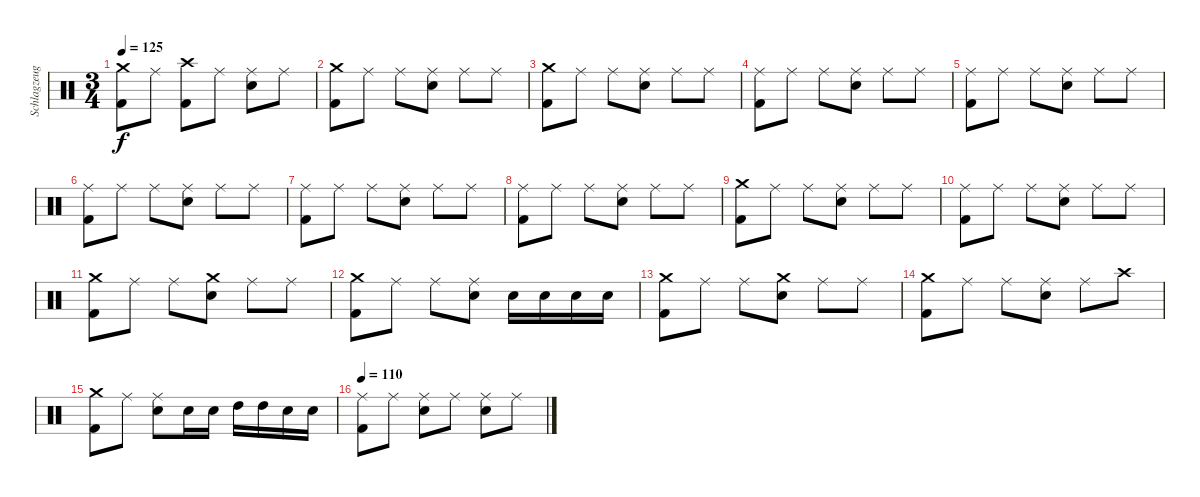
\track ("Schlagzeug" "Schlagzeug") {instrument percussion}
\staff {score}
\articulation defaults
\ts (3 4)
\tempo 125
\clef neutral
\ks c
("Crash medium (hit)" "Kick (hit) 2").8{dy f} "Ride (middle)".8 ("Crash high (hit)" "Kick (hit) 2").8 "Ride (middle)".8 ("Ride (middle)" "Snare (hit) 2").8 "Ride (middle)".8 |
("Crash medium (hit)" "Kick (hit) 2").8 "Ride (middle)".8 "Ride (middle)".8 ("Ride (middle)" "Snare (hit) 2").8 "Ride (middle)".8 "Ride (middle)".8 |
("Crash medium (hit)" "Kick (hit) 2").8 "Ride (middle)".8 "Ride (middle)".8 ("Ride (middle)" "Snare (hit) 2").8 "Ride (middle)".8 "Ride (middle)".8 |
("Ride (middle)" "Kick (hit) 2").8 "Ride (middle)".8 "Ride (middle)".8 ("Ride (middle)" "Snare (hit) 2").8 "Ride (middle)".8 "Ride (middle)".8 |
("Ride (middle)" "Kick (hit) 2").8 "Ride (middle)".8 "Ride (middle)".8 ("Ride (middle)" "Snare (hit) 2").8 "Ride (middle)".8 "Ride (middle)".8 |
("Ride (middle)" "Kick (hit) 2").8 "Ride (middle)".8 "Ride (middle)".8 ("Ride (middle)" "Snare (hit) 2").8 "Ride (middle)".8 "Ride (middle)".8 |
("Ride (middle)" "Kick (hit) 2").8 "Ride (middle)".8 "Ride (middle)".8 ("Ride (middle)" "Snare (hit) 2").8 "Ride (middle)".8 "Ride (middle)".8 |
("Ride (middle)" "Kick (hit) 2").8 "Ride (middle)".8 "Ride (middle)".8 ("Ride (middle)" "Snare (hit) 2").8 "Ride (middle)".8 "Ride (middle)".8 |
("Crash medium (hit)" "Kick (hit) 2").8 "Ride (middle)".8 "Ride (middle)".8 ("Ride (middle)" "Snare (hit) 2").8 "Ride (middle)".8 "Ride (middle)".8 |
("Ride (middle)" "Kick (hit) 2").8 "Ride (middle)".8 "Ride (middle)".8 ("Ride (middle)" "Snare (hit) 2").8 "Ride (middle)".8 "Ride (middle)".8 |
("Crash medium (hit)" "Kick (hit) 2").8 "Ride (middle)".8 "Ride (middle)".8 ("Crash medium (hit)" "Snare (hit) 2").8 "Ride (middle)".8 "Ride (middle)".8 |
("Crash medium (hit)" "Kick (hit) 2").8 "Ride (middle)".8 "Ride (middle)".8 ("Ride (middle)" "Snare (hit) 2").8 "Snare (hit) 2".16 "Snare (hit) 2".16 "Snare (hit) 2".16 "Snare (hit) 2".16 |
("Crash medium (hit)" "Kick (hit) 2").8 "Ride (middle)".8 "Ride (middle)".8 ("Crash medium (hit)" "Snare (hit) 2").8 "Ride (middle)".8 "Ride (middle)".8 |
("Crash medium (hit)" "Kick (hit) 2").8 "Ride (middle)".8 "Ride (middle)".8 ("Ride (middle)" "Snare (hit) 2").8 "Ride (middle)".8 "Crash high (hit)".8 |
("Crash medium (hit)" "Kick (hit) 2").8 "Ride (middle)".8 ("Ride (middle)" "Snare (hit) 2").8 "Snare (hit) 2".16 "Snare (hit) 2".16 "High Tom (hit)".16 "High Tom (hit)".16 "Snare (hit) 2".16 "Snare (hit) 2".16 |
\tempo 110
("Ride (middle)" "Kick (hit) 2").8 "Ride (middle)".8 ("Ride (middle)" "Snare (hit) 2").8 "Ride (middle)".8 ("Ride (middle)" "Snare (hit) 2").8 "Ride (middle)".8
